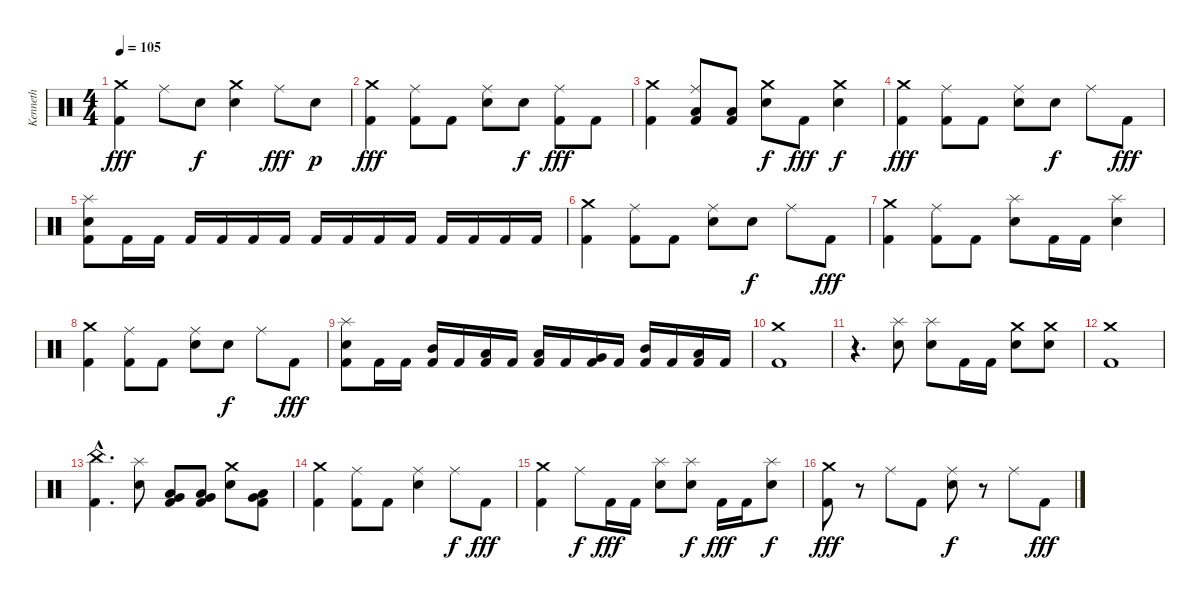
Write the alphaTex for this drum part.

\track ("Kenneth" "Kenneth") {instrument percussion}
\staff {score}
\articulation defaults
\ts (4 4)
\tempo 105
\clef neutral
\ks c
("Crash medium (hit)" "Kick (hit) 2").4{dy fff} "Ride (middle)".8 "Electric Snare (hit)".8{dy f} ("Crash medium (hit)" "Electric Snare (hit)").4 "Ride (middle)".8{dy fff} "Electric Snare (hit)".8{dy p} |
("Crash medium (hit)" "Kick (hit) 2").4{dy fff} ("Ride (middle)" "Kick (hit) 2").8 "Kick (hit) 2".8 ("Ride (middle)" "Electric Snare (hit)").8 "Electric Snare (hit)".8{dy f} ("Ride (middle)" "Kick (hit) 2").8{dy fff} "Kick (hit) 2".8 |
("Crash medium (hit)" "Kick (hit) 2").4 ("Ride (middle)" "Low Tom (hit)" "Kick (hit) 2").8 ("Low Tom (hit)" "Kick (hit) 2").8 ("Crash medium (hit)" "Electric Snare (hit)").8{dy f} "Kick (hit) 2".8{dy fff} ("Crash medium (hit)" "Electric Snare (hit)").4{dy f} |
("Crash medium (hit)" "Kick (hit) 2").4{dy fff} ("Ride (middle)" "Kick (hit) 2").8 "Kick (hit) 2".8 ("Ride (middle)" "Electric Snare (hit)").8 "Electric Snare (hit)".8{dy f} "Ride (middle)".8 "Kick (hit) 2".8{dy fff} |
("Splash (hit)" "Electric Snare (hit)" "Kick (hit) 2").8 "Kick (hit) 2".16 "Kick (hit) 2".16 "Kick (hit) 2".16 "Kick (hit) 2".16 "Kick (hit) 2".16 "Kick (hit) 2".16 "Kick (hit) 2".16 "Kick (hit) 2".16 "Kick (hit) 2".16 "Kick (hit) 2".16 "Kick (hit) 2".16 "Kick (hit) 2".16 "Kick (hit) 2".16 "Kick (hit) 2".16 |
("Crash medium (hit)" "Kick (hit) 2").4 ("Ride (middle)" "Kick (hit) 2").8 "Kick (hit) 2".8 ("Ride (middle)" "Electric Snare (hit)").8 "Electric Snare (hit)".8{dy f} "Ride (middle)".8 "Kick (hit) 2".8{dy fff} |
("Crash medium (hit)" "Kick (hit) 2").4 ("Ride (middle)" "Kick (hit) 2").8 "Kick (hit) 2".8 ("Splash (hit)" "Electric Snare (hit)").8 "Kick (hit) 2".16 "Kick (hit) 2".16 ("Splash (hit)" "Electric Snare (hit)").4 |
("Crash medium (hit)" "Kick (hit) 2").4 ("Ride (middle)" "Kick (hit) 2").8 "Kick (hit) 2".8 ("Ride (middle)" "Electric Snare (hit)").8 "Electric Snare (hit)".8{dy f} "Ride (middle)".8 "Kick (hit) 2".8{dy fff} |
("Splash (hit)" "Electric Snare (hit)" "Kick (hit) 2").8 "Kick (hit) 2".16 "Kick (hit) 2".16 ("Mid Tom (hit)" "Kick (hit) 2").16 "Kick (hit) 2".16 ("Low Tom (hit)" "Kick (hit) 2").16 "Kick (hit) 2".16 ("Low Tom (hit)" "Kick (hit) 2").16 "Kick (hit) 2".16 ("Very Low Tom (hit)" "Kick (hit) 2").16 "Kick (hit) 2".16 ("Mid Tom (hit)" "Kick (hit) 2").16 "Kick (hit) 2".16 ("Low Floor Tom (hit)" "Kick (hit) 2").16 "Kick (hit) 2".16 |
("Crash medium (hit)" "Kick (hit) 2").1 |
r.4{d} ("Splash (hit)" "Electric Snare (hit)").8 ("Splash (hit)" "Electric Snare (hit)").8 "Kick (hit) 2".16 "Kick (hit) 2".16 ("Crash medium (hit)" "Electric Snare (hit)").8 ("Crash medium (hit)" "Electric Snare (hit)").8 |
("Crash medium (hit)" "Kick (hit) 2").1 |
("China (hit)"{hac} "Kick (hit) 2"{hac}).4{d} ("Splash (hit)" "Electric Snare (hit)").8 ("Very Low Tom (hit)" "Low Tom (hit)" "Kick (hit) 2").8 ("Very Low Tom (hit)" "Low Tom (hit)" "Kick (hit) 2").8 ("Crash medium (hit)" "Electric Snare (hit)").8 ("Very Low Tom (hit)" "Low Tom (hit)" "Kick (hit) 2").8 |
("Crash medium (hit)" "Kick (hit) 2").4 ("Ride (middle)" "Kick (hit) 2").8 "Kick (hit) 2".8 ("Ride (middle)" "Electric Snare (hit)").4 "Ride (middle)".8{dy f} "Kick (hit) 2".8{dy fff} |
("Crash medium (hit)" "Kick (hit) 2").4 "Ride (middle)".8{dy f} "Kick (hit) 2".16{dy fff} "Kick (hit) 2".16 ("Splash (hit)" "Electric Snare (hit)").8 ("Splash (hit)" "Electric Snare (hit)").8{dy f} "Kick (hit) 2".16{dy fff} "Kick (hit) 2".16 ("Splash (hit)" "Electric Snare (hit)").8{dy f} |
("Crash medium (hit)" "Kick (hit) 2").8{dy fff} r.8 "Ride (middle)".8 "Kick (hit) 2".8 ("Ride (middle)" "Electric Snare (hit)").8{dy f} r.8 "Ride (middle)".8 "Kick (hit) 2".8{dy fff}
